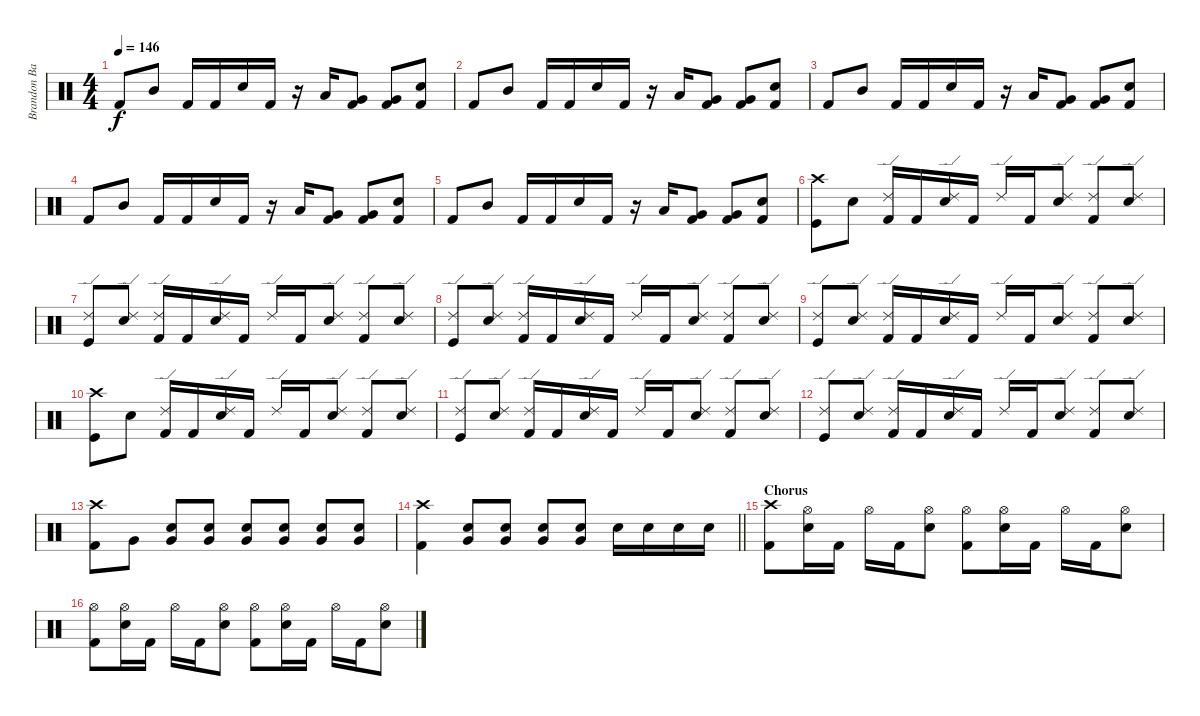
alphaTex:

\track ("Brandon Barnes - Drums" "Brandon Ba") {instrument percussion}
\staff {score}
\articulation defaults
\ts (4 4)
\tempo 146
\clef neutral
\ks c "Kick (hit) 2".8{dy f} "Mid Tom (hit)".8 "Kick (hit) 2".16 "Kick (hit) 2".16 "Snare (hit) 2".16 "Kick (hit) 2".16
r.16 "Low Tom (hit)".16 ("Kick (hit) 2" "Very Low Tom (hit)").8 ("Kick (hit) 2" "Very Low Tom (hit)").8 ("Kick (hit) 2" "Snare (hit) 2").8 |
"Kick (hit) 2".8 "Mid Tom (hit)".8 "Kick (hit) 2".16 "Kick (hit) 2".16 "Snare (hit) 2".16 "Kick (hit) 2".16 r.16 "Low Tom (hit)".16 ("Kick (hit) 2" "Very Low Tom (hit)").8 ("Kick (hit) 2" "Very Low Tom (hit)").8 ("Kick (hit) 2" "Snare (hit) 2").8 |
"Kick (hit) 2".8 "Mid Tom (hit)".8 "Kick (hit) 2".16 "Kick (hit) 2".16 "Snare (hit) 2".16 "Kick (hit) 2".16 r.16 "Low Tom (hit)".16 ("Kick (hit) 2" "Very Low Tom (hit)").8 ("Kick (hit) 2" "Very Low Tom (hit)").8 ("Kick (hit) 2" "Snare (hit) 2").8 |
"Kick (hit) 2".8 "Mid Tom (hit)".8 "Kick (hit) 2".16 "Kick (hit) 2".16 "Snare (hit) 2".16 "Kick (hit) 2".16 r.16 "Low Tom (hit)".16 ("Kick (hit) 2" "Very Low Tom (hit)").8 ("Kick (hit) 2" "Very Low Tom (hit)").8 ("Kick (hit) 2" "Snare (hit) 2").8 |
"Kick (hit) 2".8 "Mid Tom (hit)".8 "Kick (hit) 2".16 "Kick (hit) 2".16 "Snare (hit) 2".16 "Kick (hit) 2".16 r.16 "Low Tom (hit)".16 ("Kick (hit) 2" "Very Low Tom (hit)").8 ("Kick (hit) 2" "Very Low Tom (hit)").8 ("Kick (hit) 2" "Snare (hit) 2").8 |
("Crash high (hit)" "Kick (hit)").8 "Snare (hit) 2".8 ("Kick (hit) 2" "Ride (edge) 2").16 "Kick (hit) 2".16 ("Snare (hit) 2" "Ride (edge) 2").16 "Kick (hit) 2".16 "Ride (edge) 2".16 "Kick (hit) 2".16 ("Snare (hit) 2" "Ride (edge) 2").8 ("Kick (hit) 2" "Ride (edge) 2").8 ("Snare (hit) 2" "Ride (edge) 2").8 |
("Ride (edge) 2" "Kick (hit)").8 ("Ride (edge) 2" "Snare (hit) 2").8 ("Kick (hit) 2" "Ride (edge) 2").16 "Kick (hit) 2".16 ("Snare (hit) 2" "Ride (edge) 2").16 "Kick (hit) 2".16 "Ride (edge) 2".16 "Kick (hit) 2".16 ("Snare (hit) 2" "Ride (edge) 2").8 ("Kick (hit) 2" "Ride (edge) 2").8 ("Snare (hit) 2" "Ride (edge) 2").8 |
("Ride (edge) 2" "Kick (hit)").8 ("Ride (edge) 2" "Snare (hit) 2").8 ("Kick (hit) 2" "Ride (edge) 2").16 "Kick (hit) 2".16 ("Snare (hit) 2" "Ride (edge) 2").16 "Kick (hit) 2".16 "Ride (edge) 2".16 "Kick (hit) 2".16 ("Snare (hit) 2" "Ride (edge) 2").8 ("Kick (hit) 2" "Ride (edge) 2").8 ("Snare (hit) 2" "Ride (edge) 2").8 |
("Ride (edge) 2" "Kick (hit)").8 ("Ride (edge) 2" "Snare (hit) 2").8 ("Kick (hit) 2" "Ride (edge) 2").16 "Kick (hit) 2".16 ("Snare (hit) 2" "Ride (edge) 2").16 "Kick (hit) 2".16 "Ride (edge) 2".16 "Kick (hit) 2".16 ("Snare (hit) 2" "Ride (edge) 2").8 ("Kick (hit) 2" "Ride (edge) 2").8 ("Snare (hit) 2" "Ride (edge) 2").8 |
("Crash high (hit)" "Kick (hit)").8 "Snare (hit) 2".8 ("Kick (hit) 2" "Ride (edge) 2").16 "Kick (hit) 2".16 ("Snare (hit) 2" "Ride (edge) 2").16 "Kick (hit) 2".16 "Ride (edge) 2".16 "Kick (hit) 2".16 ("Snare (hit) 2" "Ride (edge) 2").8 ("Kick (hit) 2" "Ride (edge) 2").8 ("Snare (hit) 2" "Ride (edge) 2").8 |
("Ride (edge) 2" "Kick (hit)").8 ("Ride (edge) 2" "Snare (hit) 2").8 ("Kick (hit) 2" "Ride (edge) 2").16 "Kick (hit) 2".16 ("Snare (hit) 2" "Ride (edge) 2").16 "Kick (hit) 2".16 "Ride (edge) 2".16 "Kick (hit) 2".16 ("Snare (hit) 2" "Ride (edge) 2").8 ("Kick (hit) 2" "Ride (edge) 2").8 ("Snare (hit) 2" "Ride (edge) 2").8 |
("Ride (edge) 2" "Kick (hit)").8 ("Ride (edge) 2" "Snare (hit) 2").8 ("Kick (hit) 2" "Ride (edge) 2").16 "Kick (hit) 2".16 ("Snare (hit) 2" "Ride (edge) 2").16 "Kick (hit) 2".16 "Ride (edge) 2".16 "Kick (hit) 2".16 ("Snare (hit) 2" "Ride (edge) 2").8 ("Kick (hit) 2" "Ride (edge) 2").8 ("Snare (hit) 2" "Ride (edge) 2").8 |
("Crash high (hit)" "Kick (hit) 2").8 "Very Low Tom (hit)".8 ("Very Low Tom (hit)" "Snare (hit) 2").8 ("Snare (hit) 2" "Very Low Tom (hit)").8 ("Snare (hit) 2" "Very Low Tom (hit)").8 ("Snare (hit) 2" "Very Low Tom (hit)").8 ("Snare (hit) 2" "Very Low Tom (hit)").8 ("Snare (hit) 2" "Very Low Tom (hit)").8 |
\barLineRight lightlight
("Crash high (hit)" "Kick (hit) 2").4 ("Very Low Tom (hit)" "Snare (hit) 2").8 ("Snare (hit) 2" "Very Low Tom (hit)").8 ("Snare (hit) 2" "Very Low Tom (hit)").8 ("Snare (hit) 2" "Very Low Tom (hit)").8 "Snare (hit) 2".16 "Snare (hit) 2".16 "Snare (hit) 2".16 "Snare (hit) 2".16 |
\section ("" "Chorus")
("Crash high (hit)" "Kick (hit) 2").8 ("Snare (hit) 2" "Hi-Hat (open)").16 "Kick (hit) 2".16 "Hi-Hat (open)".16 "Kick (hit) 2".16 ("Snare (hit) 2" "Hi-Hat (open)").8 ("Hi-Hat (open)" "Kick (hit) 2").8 ("Snare (hit) 2" "Hi-Hat (open)").16 "Kick (hit) 2".16 "Hi-Hat (open)".16 "Kick (hit) 2".16 ("Snare (hit) 2" "Hi-Hat (open)").8 |
("Hi-Hat (open)" "Kick (hit) 2").8 ("Snare (hit) 2" "Hi-Hat (open)").16 "Kick (hit) 2".16 "Hi-Hat (open)".16 "Kick (hit) 2".16 ("Snare (hit) 2" "Hi-Hat (open)").8 ("Hi-Hat (open)" "Kick (hit) 2").8 ("Snare (hit) 2" "Hi-Hat (open)").16 "Kick (hit) 2".16 "Hi-Hat (open)".16 "Kick (hit) 2".16 ("Snare (hit) 2" "Hi-Hat (open)").8
